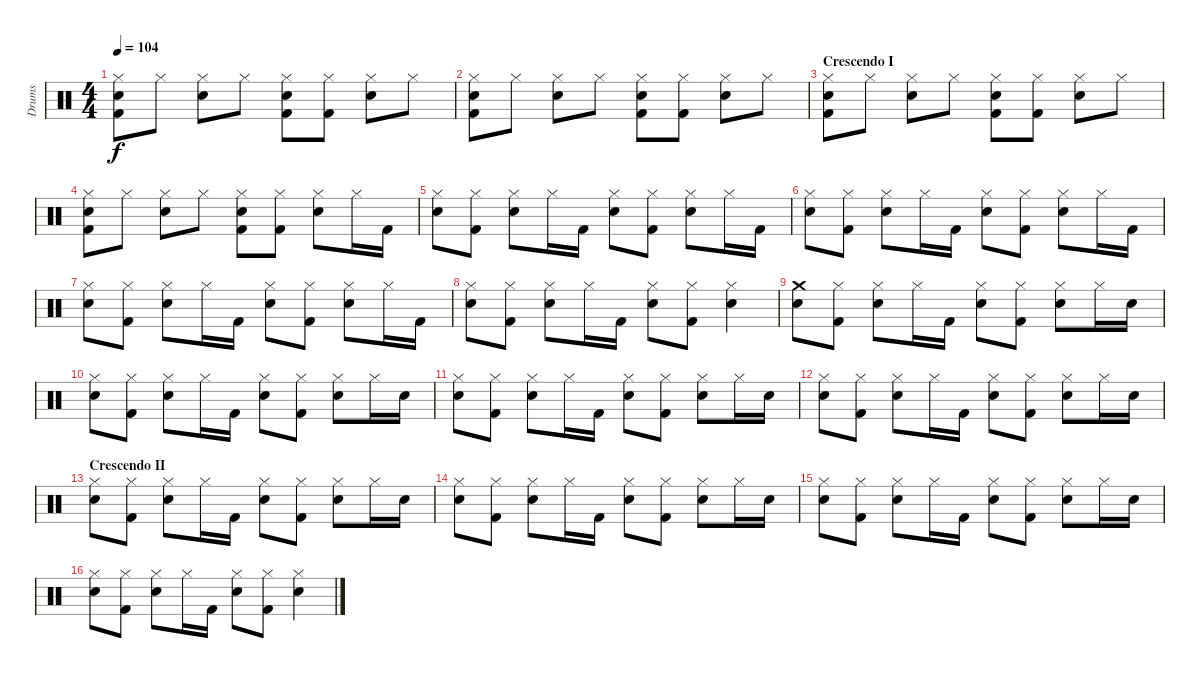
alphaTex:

\track ("Drums" "Drums") {instrument percussion}
\staff {score}
\articulation defaults
\ts (4 4)
\tempo 104
\clef neutral
\ks c
("Hi-Hat (closed)" "Snare (hit) 2" "Kick (hit) 2").8{dy f} "Hi-Hat (closed)".8 ("Hi-Hat (closed)" "Snare (hit) 2").8 "Hi-Hat (closed)".8 ("Hi-Hat (closed)" "Snare (hit) 2" "Kick (hit) 2").8 ("Hi-Hat (closed)" "Kick (hit) 2").8 ("Hi-Hat (closed)" "Snare (hit) 2").8 "Hi-Hat (closed)".8 |
("Hi-Hat (closed)" "Snare (hit) 2" "Kick (hit) 2").8 "Hi-Hat (closed)".8 ("Hi-Hat (closed)" "Snare (hit) 2").8 "Hi-Hat (closed)".8 ("Hi-Hat (closed)" "Snare (hit) 2" "Kick (hit) 2").8 ("Hi-Hat (closed)" "Kick (hit) 2").8 ("Hi-Hat (closed)" "Snare (hit) 2").8 "Hi-Hat (closed)".8 |
\section ("" "Crescendo I")
("Hi-Hat (closed)" "Snare (hit) 2" "Kick (hit) 2").8 "Hi-Hat (closed)".8 ("Hi-Hat (closed)" "Snare (hit) 2").8 "Hi-Hat (closed)".8 ("Hi-Hat (closed)" "Snare (hit) 2" "Kick (hit) 2").8 ("Hi-Hat (closed)" "Kick (hit) 2").8 ("Hi-Hat (closed)" "Snare (hit) 2").8 "Hi-Hat (closed)".8 |
("Hi-Hat (closed)" "Snare (hit) 2" "Kick (hit) 2").8 "Hi-Hat (closed)".8 ("Hi-Hat (closed)" "Snare (hit) 2").8 "Hi-Hat (closed)".8 ("Hi-Hat (closed)" "Snare (hit) 2" "Kick (hit) 2").8 ("Hi-Hat (closed)" "Kick (hit) 2").8 ("Hi-Hat (closed)" "Snare (hit) 2").8 "Hi-Hat (closed)".16 "Kick (hit) 2".16 |
("Hi-Hat (closed)" "Snare (hit) 2").8 ("Hi-Hat (closed)" "Kick (hit) 2").8 ("Hi-Hat (closed)" "Snare (hit) 2").8 "Hi-Hat (closed)".16 "Kick (hit) 2".16 ("Hi-Hat (closed)" "Snare (hit) 2").8 ("Hi-Hat (closed)" "Kick (hit) 2").8 ("Hi-Hat (closed)" "Snare (hit) 2").8 "Hi-Hat (closed)".16 "Kick (hit) 2".16 |
("Hi-Hat (closed)" "Snare (hit) 2").8 ("Hi-Hat (closed)" "Kick (hit) 2").8 ("Hi-Hat (closed)" "Snare (hit) 2").8 "Hi-Hat (closed)".16 "Kick (hit) 2".16 ("Hi-Hat (closed)" "Snare (hit) 2").8 ("Hi-Hat (closed)" "Kick (hit) 2").8 ("Hi-Hat (closed)" "Snare (hit) 2").8 "Hi-Hat (closed)".16 "Kick (hit) 2".16 |
("Hi-Hat (closed)" "Snare (hit) 2").8 ("Hi-Hat (closed)" "Kick (hit) 2").8 ("Hi-Hat (closed)" "Snare (hit) 2").8 "Hi-Hat (closed)".16 "Kick (hit) 2".16 ("Hi-Hat (closed)" "Snare (hit) 2").8 ("Hi-Hat (closed)" "Kick (hit) 2").8 ("Hi-Hat (closed)" "Snare (hit) 2").8 "Hi-Hat (closed)".16 "Kick (hit) 2".16 |
("Hi-Hat (closed)" "Snare (hit) 2").8 ("Hi-Hat (closed)" "Kick (hit) 2").8 ("Hi-Hat (closed)" "Snare (hit) 2").8 "Hi-Hat (closed)".16 "Kick (hit) 2".16 ("Hi-Hat (closed)" "Snare (hit) 2").8 ("Hi-Hat (closed)" "Kick (hit) 2").8 ("Hi-Hat (closed)" "Snare (hit) 2").4 |
("Crash medium (hit)" "Snare (hit) 2").8 ("Hi-Hat (closed)" "Kick (hit) 2").8 ("Hi-Hat (closed)" "Snare (hit) 2").8 "Hi-Hat (closed)".16 "Kick (hit) 2".16 ("Hi-Hat (closed)" "Snare (hit) 2").8 ("Hi-Hat (closed)" "Kick (hit) 2").8 ("Hi-Hat (closed)" "Snare (hit) 2").8 "Hi-Hat (closed)".16 "Snare (hit) 2".16 |
("Hi-Hat (closed)" "Snare (hit) 2").8 ("Hi-Hat (closed)" "Kick (hit) 2").8 ("Hi-Hat (closed)" "Snare (hit) 2").8 "Hi-Hat (closed)".16 "Kick (hit) 2".16 ("Hi-Hat (closed)" "Snare (hit) 2").8 ("Hi-Hat (closed)" "Kick (hit) 2").8 ("Hi-Hat (closed)" "Snare (hit) 2").8 "Hi-Hat (closed)".16 "Snare (hit) 2".16 |
("Hi-Hat (closed)" "Snare (hit) 2").8 ("Hi-Hat (closed)" "Kick (hit) 2").8 ("Hi-Hat (closed)" "Snare (hit) 2").8 "Hi-Hat (closed)".16 "Kick (hit) 2".16 ("Hi-Hat (closed)" "Snare (hit) 2").8 ("Hi-Hat (closed)" "Kick (hit) 2").8 ("Hi-Hat (closed)" "Snare (hit) 2").8 "Hi-Hat (closed)".16 "Snare (hit) 2".16 |
("Hi-Hat (closed)" "Snare (hit) 2").8 ("Hi-Hat (closed)" "Kick (hit) 2").8 ("Hi-Hat (closed)" "Snare (hit) 2").8 "Hi-Hat (closed)".16 "Kick (hit) 2".16 ("Hi-Hat (closed)" "Snare (hit) 2").8 ("Hi-Hat (closed)" "Kick (hit) 2").8 ("Hi-Hat (closed)" "Snare (hit) 2").8 "Hi-Hat (closed)".16 "Snare (hit) 2".16 |
\section ("" "Crescendo II")
("Hi-Hat (closed)" "Snare (hit) 2").8 ("Hi-Hat (closed)" "Kick (hit) 2").8 ("Hi-Hat (closed)" "Snare (hit) 2").8 "Hi-Hat (closed)".16 "Kick (hit) 2".16 ("Hi-Hat (closed)" "Snare (hit) 2").8 ("Hi-Hat (closed)" "Kick (hit) 2").8 ("Hi-Hat (closed)" "Snare (hit) 2").8 "Hi-Hat (closed)".16 "Snare (hit) 2".16 |
("Hi-Hat (closed)" "Snare (hit) 2").8 ("Hi-Hat (closed)" "Kick (hit) 2").8 ("Hi-Hat (closed)" "Snare (hit) 2").8 "Hi-Hat (closed)".16 "Kick (hit) 2".16 ("Hi-Hat (closed)" "Snare (hit) 2").8 ("Hi-Hat (closed)" "Kick (hit) 2").8 ("Hi-Hat (closed)" "Snare (hit) 2").8 "Hi-Hat (closed)".16 "Snare (hit) 2".16 |
("Hi-Hat (closed)" "Snare (hit) 2").8 ("Hi-Hat (closed)" "Kick (hit) 2").8 ("Hi-Hat (closed)" "Snare (hit) 2").8 "Hi-Hat (closed)".16 "Kick (hit) 2".16 ("Hi-Hat (closed)" "Snare (hit) 2").8 ("Hi-Hat (closed)" "Kick (hit) 2").8 ("Hi-Hat (closed)" "Snare (hit) 2").8 "Hi-Hat (closed)".16 "Snare (hit) 2".16 |
("Hi-Hat (closed)" "Snare (hit) 2").8 ("Hi-Hat (closed)" "Kick (hit) 2").8 ("Hi-Hat (closed)" "Snare (hit) 2").8 "Hi-Hat (closed)".16 "Kick (hit) 2".16 ("Hi-Hat (closed)" "Snare (hit) 2").8 ("Hi-Hat (closed)" "Kick (hit) 2").8 ("Hi-Hat (closed)" "Snare (hit) 2").4
